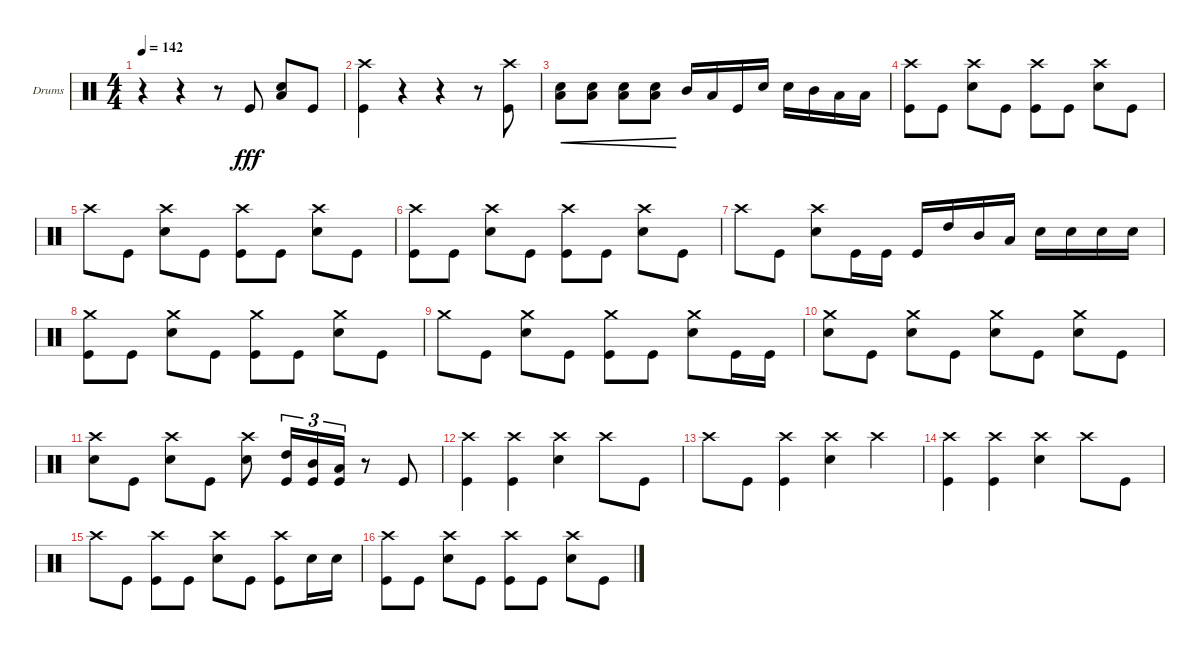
\defaultSystemsLayout 4
\bracketExtendMode groupsimilarinstruments
\firstSystemTrackNameOrientation horizontal
\otherSystemsTrackNameOrientation horizontal
\track ("Drumkit" "Drums") {instrument percussion}
\staff {score}
\articulation defaults
\ts (4 4)
\tempo 142
\clef neutral
\scale
0.333333
\ks c
r.4{dy fff} r.4 r.8 "Kick (hit)".8 ("Snare (hit) 2" "Low Tom (hit)").8 "Kick (hit)".8 |
\scale
0.333333 ("Kick (hit)" "Crash high (hit)").4 r.4 r.4 r.8 ("Kick (hit)" "Crash high (hit)").8 |
\scale
0.333333 ("Snare (hit) 2" "Low Tom (hit)").8{cre} ("Snare (hit) 2" "Low Tom (hit)").8{cre} ("Low Tom (hit)" "Snare (hit) 2").8{cre} ("Snare (hit) 2" "Low Tom (hit)").8{cre} "Mid Tom (hit)".16 "Low Tom (hit)".16 "Kick (hit)".16 "Snare (hit) 2".16 "Snare (hit) 2".16 "Mid Tom (hit)".16 "Low Tom (hit)".16 "Low Tom (hit)".16 |
\scale
0.333333 ("Kick (hit)" "Crash high (hit)").8 "Kick (hit)".8 ("Snare (hit) 2" "Crash high (hit)").8 "Kick (hit)".8 ("Kick (hit)" "Crash high (hit)").8 "Kick (hit)".8 ("Snare (hit) 2" "Crash high (hit)").8 "Kick (hit)".8 |
\scale
0.333333 "Crash high (hit)".8 "Kick (hit)".8 ("Crash high (hit)" "Snare (hit) 2").8 "Kick (hit)".8 ("Crash high (hit)" "Kick (hit)").8 "Kick (hit)".8 ("Crash high (hit)" "Snare (hit) 2").8 "Kick (hit)".8 |
\scale
0.333333 ("Kick (hit)" "Crash high (hit)").8 "Kick (hit)".8 ("Snare (hit) 2" "Crash high (hit)").8 "Kick (hit)".8 ("Kick (hit)" "Crash high (hit)").8 "Kick (hit)".8 ("Snare (hit) 2" "Crash high (hit)").8 "Kick (hit)".8 |
\scale
0.333333 "Crash high (hit)".8 "Kick (hit)".8 ("Crash high (hit)" "Snare (hit) 2").8 "Kick (hit)".16 "Kick (hit)".16 "Kick (hit)".16 "High Tom (hit)".16 "Mid Tom (hit)".16 "Low Tom (hit)".16 "Snare (hit) 2".16 "Snare (hit) 2".16 "Snare (hit) 2".16 "Snare (hit) 2".16 |
\scale
0.333333 ("Kick (hit)" "Crash medium (hit)").8 "Kick (hit)".8 ("Snare (hit) 2" "Crash medium (hit)").8 "Kick (hit)".8 ("Kick (hit)" "Crash medium (hit)").8 "Kick (hit)".8 ("Snare (hit) 2" "Crash medium (hit)").8 "Kick (hit)".8 |
\scale
0.333333 "Crash medium (hit)".8 "Kick (hit)".8 ("Snare (hit) 2" "Crash medium (hit)").8 "Kick (hit)".8 ("Kick (hit)" "Crash medium (hit)").8 "Kick (hit)".8 ("Snare (hit) 2" "Crash medium (hit)").8 "Kick (hit)".16 "Kick (hit)".16 |
\scale
0.333333 ("Snare (hit) 2" "Crash medium (hit)").8 "Kick (hit)".8 ("Snare (hit) 2" "Crash medium (hit)").8 "Kick (hit)".8 ("Snare (hit) 2" "Crash medium (hit)").8 "Kick (hit)".8 ("Snare (hit) 2" "Crash medium (hit)").8 "Kick (hit)".8 |
\scale
0.333333 ("Crash high (hit)" "Snare (hit) 2").8 "Kick (hit)".8 ("Crash high (hit)" "Snare (hit) 2").8 "Kick (hit)".8 ("Crash high (hit)" "Snare (hit) 2").8 ("Kick (hit)" "High Tom (hit)").16{tu (3 2)} ("Kick (hit)" "Mid Tom (hit)").16{tu (3 2)} ("Kick (hit)" "Low Tom (hit)").16{tu (3 2)} r.8 "Kick (hit)".8 |
\scale
0.333333 ("Kick (hit)" "Crash high (hit)").4 ("Kick (hit)" "Crash high (hit)").4 ("Snare (hit) 2" "Crash high (hit)").4 "Crash high (hit)".8 "Kick (hit)".8 |
\scale
0.333333 "Crash high (hit)".8 "Kick (hit)".8 ("Kick (hit)" "Crash high (hit)").4 ("Snare (hit) 2" "Crash high (hit)").4 "Crash high (hit)".4 |
\scale
0.333333 ("Kick (hit)" "Crash high (hit)").4 ("Kick (hit)" "Crash high (hit)").4 ("Snare (hit) 2" "Crash high (hit)").4 "Crash high (hit)".8 "Kick (hit)".8 |
\scale
0.333333 "Crash high (hit)".8 "Kick (hit)".8 ("Kick (hit)" "Crash high (hit)").8 "Kick (hit)".8 ("Crash high (hit)" "Snare (hit) 2").8 "Kick (hit)".8 ("Kick (hit)" "Crash high (hit)").8 "Snare (hit) 2".16 "Snare (hit) 2".16 |
\scale
0.333333 ("Kick (hit)" "Crash high (hit)").8 "Kick (hit)".8 ("Snare (hit) 2" "Crash high (hit)").8 "Kick (hit)".8 ("Kick (hit)" "Crash high (hit)").8 "Kick (hit)".8 ("Snare (hit) 2" "Crash high (hit)").8 "Kick (hit)".8
